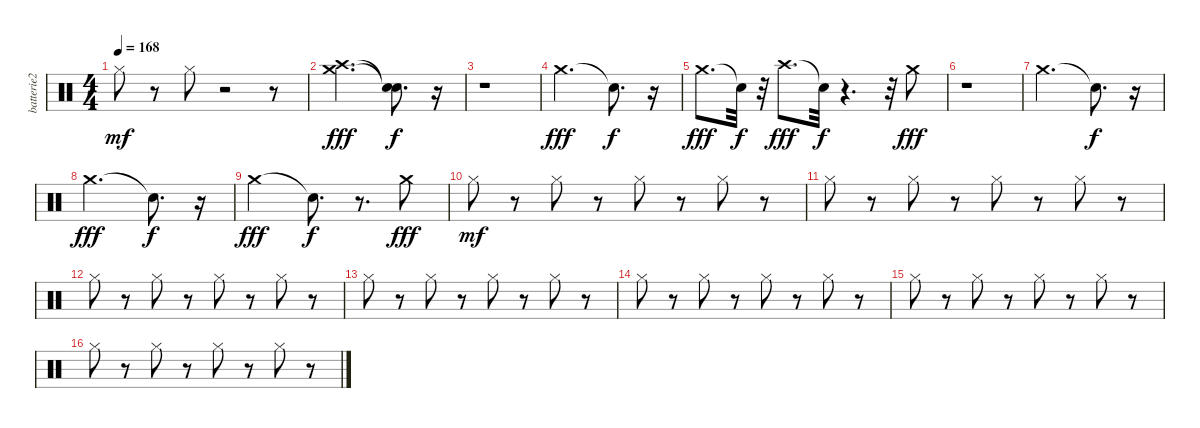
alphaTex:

\track ("batterie2" "batterie2") {instrument percussion}
\staff {score}
\articulation defaults
\ts (4 4)
\tempo 168
\clef neutral
\ks c "Hi-Hat (closed)".8{dy mf}
r.8 "Hi-Hat (closed)".8 r.2 r.8 |
("Crash high (hit)" "Crash medium (hit)").2{d dy fff} ("Snare (hit)"{t} "Snare (hit)"{t}).8{d dy f} r.16 |
r.1 |
"Crash medium (hit)".2{d dy fff} "Snare (hit)"{t}.8{d dy f} r.16 |
"Crash medium (hit)".8{d dy fff} "Snare (hit)"{t}.32{dy f} r.32 "Crash high (hit)".8{d dy fff} "Snare (hit)"{t}.32{dy f} r.4{d} r.32 "Crash medium (hit)".8{dy fff} |
r.1 |
"Crash medium (hit)".2{d} "Snare (hit)"{t}.8{d dy f} r.16 |
"Crash medium (hit)".2{d dy fff} "Snare (hit)"{t}.8{d dy f} r.16 |
"Crash medium (hit)".2{dy fff} "Snare (hit)"{t}.8{d dy f} r.8{d} "Crash medium (hit)".8{dy fff} |
"Hi-Hat (closed)".8{dy mf} r.8 "Hi-Hat (closed)".8 r.8 "Hi-Hat (closed)".8 r.8 "Hi-Hat (closed)".8 r.8 |
"Hi-Hat (closed)".8 r.8 "Hi-Hat (closed)".8 r.8 "Hi-Hat (closed)".8 r.8 "Hi-Hat (closed)".8 r.8 |
"Hi-Hat (closed)".8 r.8 "Hi-Hat (closed)".8 r.8 "Hi-Hat (closed)".8 r.8 "Hi-Hat (closed)".8 r.8 |
"Hi-Hat (closed)".8 r.8 "Hi-Hat (closed)".8 r.8 "Hi-Hat (closed)".8 r.8 "Hi-Hat (closed)".8 r.8 |
"Hi-Hat (closed)".8 r.8 "Hi-Hat (closed)".8 r.8 "Hi-Hat (closed)".8 r.8 "Hi-Hat (closed)".8 r.8 |
"Hi-Hat (closed)".8 r.8 "Hi-Hat (closed)".8 r.8 "Hi-Hat (closed)".8 r.8 "Hi-Hat (closed)".8 r.8 |
"Hi-Hat (closed)".8 r.8 "Hi-Hat (closed)".8 r.8 "Hi-Hat (closed)".8 r.8 "Hi-Hat (closed)".8 r.8
